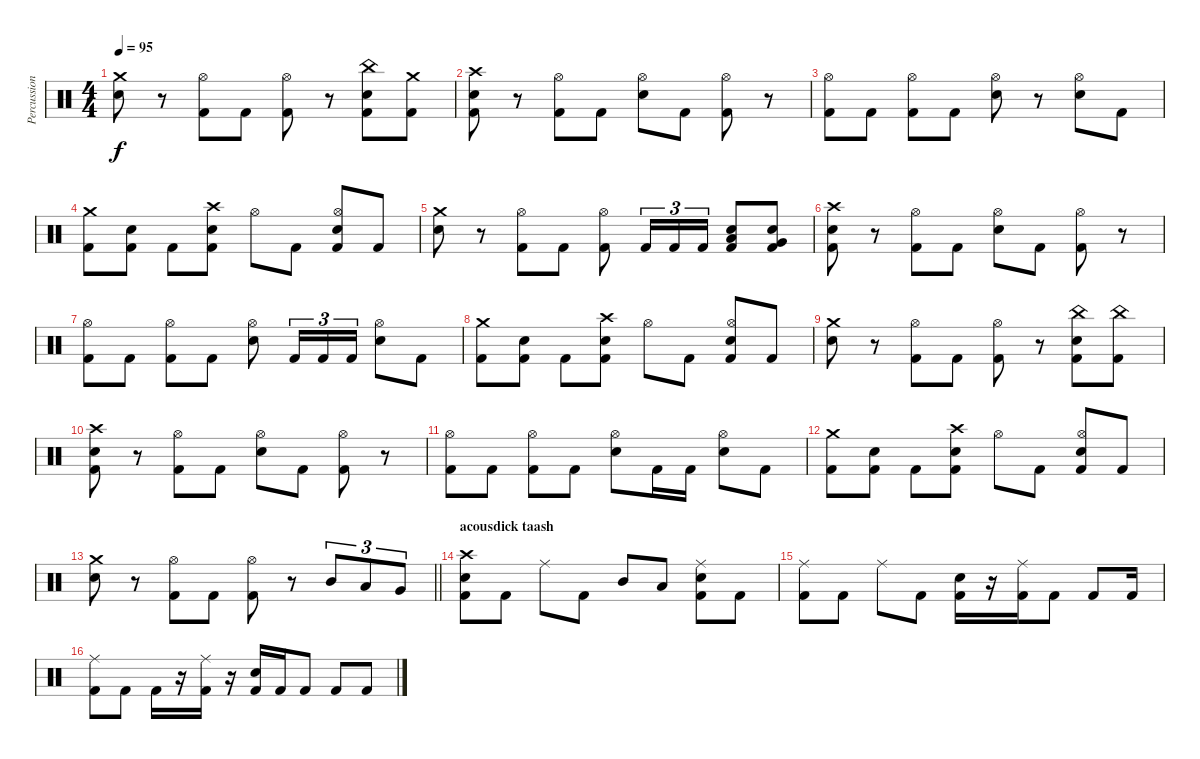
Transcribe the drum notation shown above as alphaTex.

\track ("Percussion" "Percussion") {instrument percussion}
\staff {score}
\articulation defaults
\ts (4 4)
\tempo 95
\clef neutral
\ks c
("Crash medium (hit)" "Electric Snare (hit)").8{dy f} r.8 ("Hi-Hat (open)" "Kick (hit) 2").8 "Kick (hit) 2".8 ("Hi-Hat (open)" "Kick (hit) 2").8 r.8 ("China (hit)" "Electric Snare (hit)" "Kick (hit) 2").8 ("Crash medium (hit)" "Kick (hit) 2").8 |
("Crash high (hit)" "Electric Snare (hit)" "Kick (hit) 2").8 r.8 ("Hi-Hat (open)" "Kick (hit) 2").8 "Kick (hit) 2".8 ("Hi-Hat (open)" "Electric Snare (hit)").8 "Kick (hit) 2".8 ("Hi-Hat (open)" "Kick (hit) 2").8 r.8 |
("Hi-Hat (open)" "Kick (hit) 2").8 "Kick (hit) 2".8 ("Hi-Hat (open)" "Kick (hit) 2").8 "Kick (hit) 2".8 ("Hi-Hat (open)" "Electric Snare (hit)").8 r.8 ("Hi-Hat (open)" "Electric Snare (hit)").8 "Kick (hit) 2".8 |
("Crash medium (hit)" "Kick (hit) 2").8 ("Electric Snare (hit)" "Kick (hit) 2").8 "Kick (hit) 2".8 ("Crash high (hit)" "Electric Snare (hit)" "Kick (hit) 2").8 "Hi-Hat (open)".8 "Kick (hit) 2".8 ("Hi-Hat (open)" "Electric Snare (hit)" "Kick (hit) 2").8 "Kick (hit) 2".8 |
("Crash medium (hit)" "Electric Snare (hit)").8 r.8 ("Hi-Hat (open)" "Kick (hit) 2").8 "Kick (hit) 2".8 ("Hi-Hat (open)" "Kick (hit) 2").8 "Kick (hit) 2".16{tu (3 2)} "Kick (hit) 2".16{tu (3 2)} "Kick (hit) 2".16{tu (3 2)} ("Low Tom (hit)" "Electric Snare (hit)" "Kick (hit) 2").8 ("Very Low Tom (hit)" "Electric Snare (hit)" "Kick (hit) 2").8 |
("Crash high (hit)" "Electric Snare (hit)" "Kick (hit) 2").8 r.8 ("Hi-Hat (open)" "Kick (hit) 2").8 "Kick (hit) 2".8 ("Hi-Hat (open)" "Electric Snare (hit)").8 "Kick (hit) 2".8 ("Hi-Hat (open)" "Kick (hit) 2").8 r.8 |
("Hi-Hat (open)" "Kick (hit) 2").8 "Kick (hit) 2".8 ("Hi-Hat (open)" "Kick (hit) 2").8 "Kick (hit) 2".8 ("Hi-Hat (open)" "Electric Snare (hit)").8 "Kick (hit) 2".16{tu (3 2)} "Kick (hit) 2".16{tu (3 2)} "Kick (hit) 2".16{tu (3 2)} ("Hi-Hat (open)" "Electric Snare (hit)").8 "Kick (hit) 2".8 |
("Crash medium (hit)" "Kick (hit) 2").8 ("Electric Snare (hit)" "Kick (hit) 2").8 "Kick (hit) 2".8 ("Crash high (hit)" "Electric Snare (hit)" "Kick (hit) 2").8 "Hi-Hat (open)".8 "Kick (hit) 2".8 ("Hi-Hat (open)" "Electric Snare (hit)" "Kick (hit) 2").8 "Kick (hit) 2".8 |
("Crash medium (hit)" "Electric Snare (hit)").8 r.8 ("Hi-Hat (open)" "Kick (hit) 2").8 "Kick (hit) 2".8 ("Hi-Hat (open)" "Kick (hit) 2").8 r.8 ("China (hit)" "Electric Snare (hit)" "Kick (hit) 2").8 ("China (hit)" "Kick (hit) 2").8 |
("Crash high (hit)" "Electric Snare (hit)" "Kick (hit) 2").8 r.8 ("Hi-Hat (open)" "Kick (hit) 2").8 "Kick (hit) 2".8 ("Hi-Hat (open)" "Electric Snare (hit)").8 "Kick (hit) 2".8 ("Hi-Hat (open)" "Kick (hit) 2").8 r.8 |
("Hi-Hat (open)" "Kick (hit) 2").8 "Kick (hit) 2".8 ("Hi-Hat (open)" "Kick (hit) 2").8 "Kick (hit) 2".8 ("Hi-Hat (open)" "Electric Snare (hit)").8 "Kick (hit) 2".16 "Kick (hit) 2".16 ("Hi-Hat (open)" "Electric Snare (hit)").8 "Kick (hit) 2".8 |
("Crash medium (hit)" "Kick (hit) 2").8 ("Electric Snare (hit)" "Kick (hit) 2").8 "Kick (hit) 2".8 ("Crash high (hit)" "Electric Snare (hit)" "Kick (hit) 2").8 "Hi-Hat (open)".8 "Kick (hit) 2".8 ("Hi-Hat (open)" "Electric Snare (hit)" "Kick (hit) 2").8 "Kick (hit) 2".8 |
\barLineRight lightlight
("Crash medium (hit)" "Electric Snare (hit)").8 r.8 ("Hi-Hat (open)" "Kick (hit) 2").8 "Kick (hit) 2".8 ("Hi-Hat (open)" "Kick (hit) 2").8 r.8 "Mid Tom (hit)".8{tu (3 2)} "Low Tom (hit)".8{tu (3 2)} "Very Low Tom (hit)".8{tu (3 2)} |
\section ("" "acousdick taash")
("Crash high (hit)" "Electric Snare (hit)" "Kick (hit) 2").8 "Kick (hit) 2".8 "Ride (middle)".8 "Kick (hit) 2".8 "Mid Tom (hit)".8 "Low Tom (hit)".8 ("Ride (middle)" "Electric Snare (hit)" "Kick (hit) 2").8 "Kick (hit) 2".8 |
("Ride (middle)" "Kick (hit) 2").8 "Kick (hit) 2".8 "Ride (middle)".8 "Kick (hit) 2".8 ("Electric Snare (hit)" "Kick (hit) 2").16 r.16 ("Ride (middle)" "Kick (hit) 2").16 "Kick (hit) 2".8 "Kick (hit) 2".8 "Kick (hit) 2".16 |
("Ride (middle)" "Kick (hit) 2").8 "Kick (hit) 2".8 "Kick (hit) 2".16 r.16 ("Ride (middle)" "Kick (hit) 2").16 r.16 ("Electric Snare (hit)" "Kick (hit) 2").16 "Kick (hit) 2".16 "Kick (hit) 2".8 "Kick (hit) 2".8 "Kick (hit) 2".8
